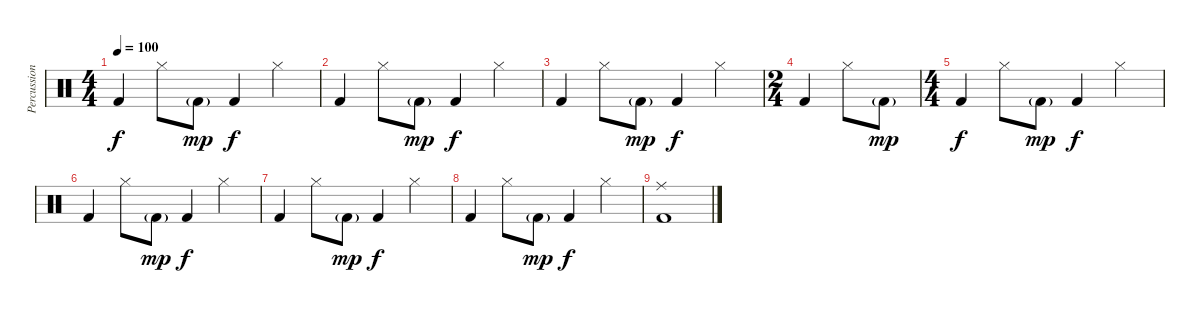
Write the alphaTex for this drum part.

\track ("Percussion" "Percussion") {instrument percussion}
\staff {score}
\articulation defaults
\ts (4 4)
\tempo 100
\clef neutral
\ks c "Kick (hit) 2".4{dy f volume 5} "Hi-Hat (closed)".8{volume 11} "Kick (hit) 2"{g}.8{dy mp volume 5} "Kick (hit) 2".4{dy f} "Hi-Hat (closed)".4{volume 11}
|
"Kick (hit) 2".4{volume 5} "Hi-Hat (closed)".8{volume 11} "Kick (hit) 2"{g}.8{dy mp volume 5} "Kick (hit) 2".4{dy f} "Hi-Hat (closed)".4{volume 11} |
"Kick (hit) 2".4{volume 5} "Hi-Hat (closed)".8{volume 11} "Kick (hit) 2"{g}.8{dy mp volume 5} "Kick (hit) 2".4{dy f} "Hi-Hat (closed)".4{volume 11} |
\ts (2 4)
"Kick (hit) 2".4{volume 5} "Hi-Hat (closed)".8{volume 11} "Kick (hit) 2"{g}.8{dy mp volume 5} |
\ts (4 4)
"Kick (hit) 2".4{dy f volume 5} "Hi-Hat (closed)".8{volume 11} "Kick (hit) 2"{g}.8{dy mp volume 5} "Kick (hit) 2".4{dy f} "Hi-Hat (closed)".4{volume 11} |
"Kick (hit) 2".4{volume 5} "Hi-Hat (closed)".8{volume 11} "Kick (hit) 2"{g}.8{dy mp volume 5} "Kick (hit) 2".4{dy f} "Hi-Hat (closed)".4{volume 11} |
"Kick (hit) 2".4{volume 5} "Hi-Hat (closed)".8{volume 11} "Kick (hit) 2"{g}.8{dy mp volume 5} "Kick (hit) 2".4{dy f} "Hi-Hat (closed)".4{volume 11} |
"Kick (hit) 2".4{volume 5} "Hi-Hat (closed)".8{volume 11} "Kick (hit) 2"{g}.8{dy mp volume 5} "Kick (hit) 2".4{dy f} "Hi-Hat (closed)".4{volume 11} |
("Ride (middle)" "Kick (hit) 2").1
